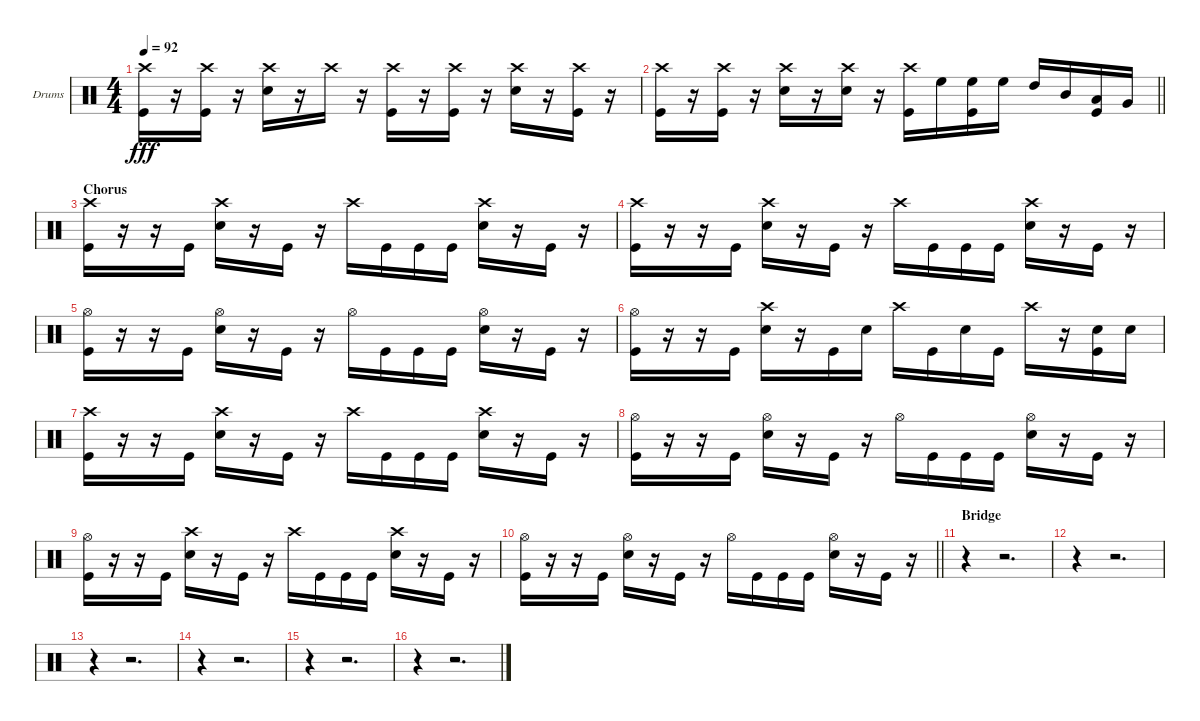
\bracketExtendMode groupsimilarinstruments
\firstSystemTrackNameOrientation horizontal
\otherSystemsTrackNameOrientation horizontal
\track ("Drums" "Drums") {instrument percussion}
\staff {score}
\articulation defaults
\ts (4 4)
\tempo 92
\clef neutral
\ks c
("Crash high (hit)" "Kick (hit)").16{dy fff} r.16 ("Crash high (hit)" "Kick (hit)").16 r.16 ("Crash high (hit)" "Snare (hit) 2").16 r.16 "Crash high (hit)".16 r.16 ("Crash high (hit)" "Kick (hit)").16 r.16 ("Crash high (hit)" "Kick (hit)").16 r.16 ("Crash high (hit)" "Snare (hit) 2").16 r.16 ("Crash high (hit)" "Kick (hit)").16 r.16 |
\barLineRight lightlight
("Crash high (hit)" "Kick (hit)").16 r.16 ("Crash high (hit)" "Kick (hit)").16 r.16 ("Crash high (hit)" "Snare (hit) 2").16 r.16 ("Crash high (hit)" "Snare (hit) 2").16 r.16 ("Crash high (hit)" "Kick (hit)").16 "High Floor Tom (hit)".16 ("High Floor Tom (hit)" "Kick (hit)").16 "High Floor Tom (hit)".16 "High Tom (hit)".16 "Mid Tom (hit)".16 ("Low Tom (hit)" "Kick (hit)").16 "Very Low Tom (hit)".16 |
\section ("" "Chorus")
("Crash high (hit)" "Kick (hit)").16 r.16 r.16 "Kick (hit)".16 ("Snare (hit) 2" "Crash high (hit)").16 r.16 "Kick (hit)".16 r.16 "Crash high (hit)".16 "Kick (hit)".16 "Kick (hit)".16 "Kick (hit)".16 ("Snare (hit) 2" "Crash high (hit)").16 r.16 "Kick (hit)".16 r.16 |
("Crash high (hit)" "Kick (hit)").16 r.16 r.16 "Kick (hit)".16 ("Snare (hit) 2" "Crash high (hit)").16 r.16 "Kick (hit)".16 r.16 "Crash high (hit)".16 "Kick (hit)".16 "Kick (hit)".16 "Kick (hit)".16 ("Snare (hit) 2" "Crash high (hit)").16 r.16 "Kick (hit)".16 r.16 |
("Kick (hit)" "Hi-Hat (open)").16 r.16 r.16 "Kick (hit)".16 ("Snare (hit) 2" "Hi-Hat (open)").16 r.16 "Kick (hit)".16 r.16 "Hi-Hat (open)".16 "Kick (hit)".16 "Kick (hit)".16 "Kick (hit)".16 ("Snare (hit) 2" "Hi-Hat (open)").16 r.16 "Kick (hit)".16 r.16 |
("Kick (hit)" "Hi-Hat (open)").16 r.16 r.16 "Kick (hit)".16 ("Snare (hit) 2" "Crash high (hit)").16 r.16 "Kick (hit)".16 "Snare (hit) 2".16 "Crash high (hit)".16 "Kick (hit)".16 "Snare (hit) 2".16 "Kick (hit)".16 "Crash high (hit)".16 r.16 ("Snare (hit) 2" "Kick (hit)").16 "Snare (hit) 2".16 |
("Crash high (hit)" "Kick (hit)").16 r.16 r.16 "Kick (hit)".16 ("Snare (hit) 2" "Crash high (hit)").16 r.16 "Kick (hit)".16 r.16 "Crash high (hit)".16 "Kick (hit)".16 "Kick (hit)".16 "Kick (hit)".16 ("Snare (hit) 2" "Crash high (hit)").16 r.16 "Kick (hit)".16 r.16 |
("Hi-Hat (open)" "Kick (hit)").16 r.16 r.16 "Kick (hit)".16 ("Hi-Hat (open)" "Snare (hit) 2").16 r.16 "Kick (hit)".16 r.16 "Hi-Hat (open)".16 "Kick (hit)".16 "Kick (hit)".16 "Kick (hit)".16 ("Snare (hit) 2" "Hi-Hat (open)").16 r.16 "Kick (hit)".16 r.16 |
("Kick (hit)" "Hi-Hat (open)").16 r.16 r.16 "Kick (hit)".16 ("Snare (hit) 2" "Crash high (hit)").16 r.16 "Kick (hit)".16 r.16 "Crash high (hit)".16 "Kick (hit)".16 "Kick (hit)".16 "Kick (hit)".16 ("Snare (hit) 2" "Crash high (hit)").16 r.16 "Kick (hit)".16 r.16 |
\barLineRight lightlight
("Hi-Hat (open)" "Kick (hit)").16 r.16 r.16 "Kick (hit)".16 ("Snare (hit) 2" "Hi-Hat (open)").16 r.16 "Kick (hit)".16 r.16 "Hi-Hat (open)".16 "Kick (hit)".16 "Kick (hit)".16 "Kick (hit)".16 ("Hi-Hat (open)" "Snare (hit) 2").16 r.16 "Kick (hit)".16 r.16 |
\section ("" "Bridge")
r.4 r.2{d} |
r.4 r.2{d} |
r.4 r.2{d} |
r.4 r.2{d} |
r.4 r.2{d} |
r.4 r.2{d}
